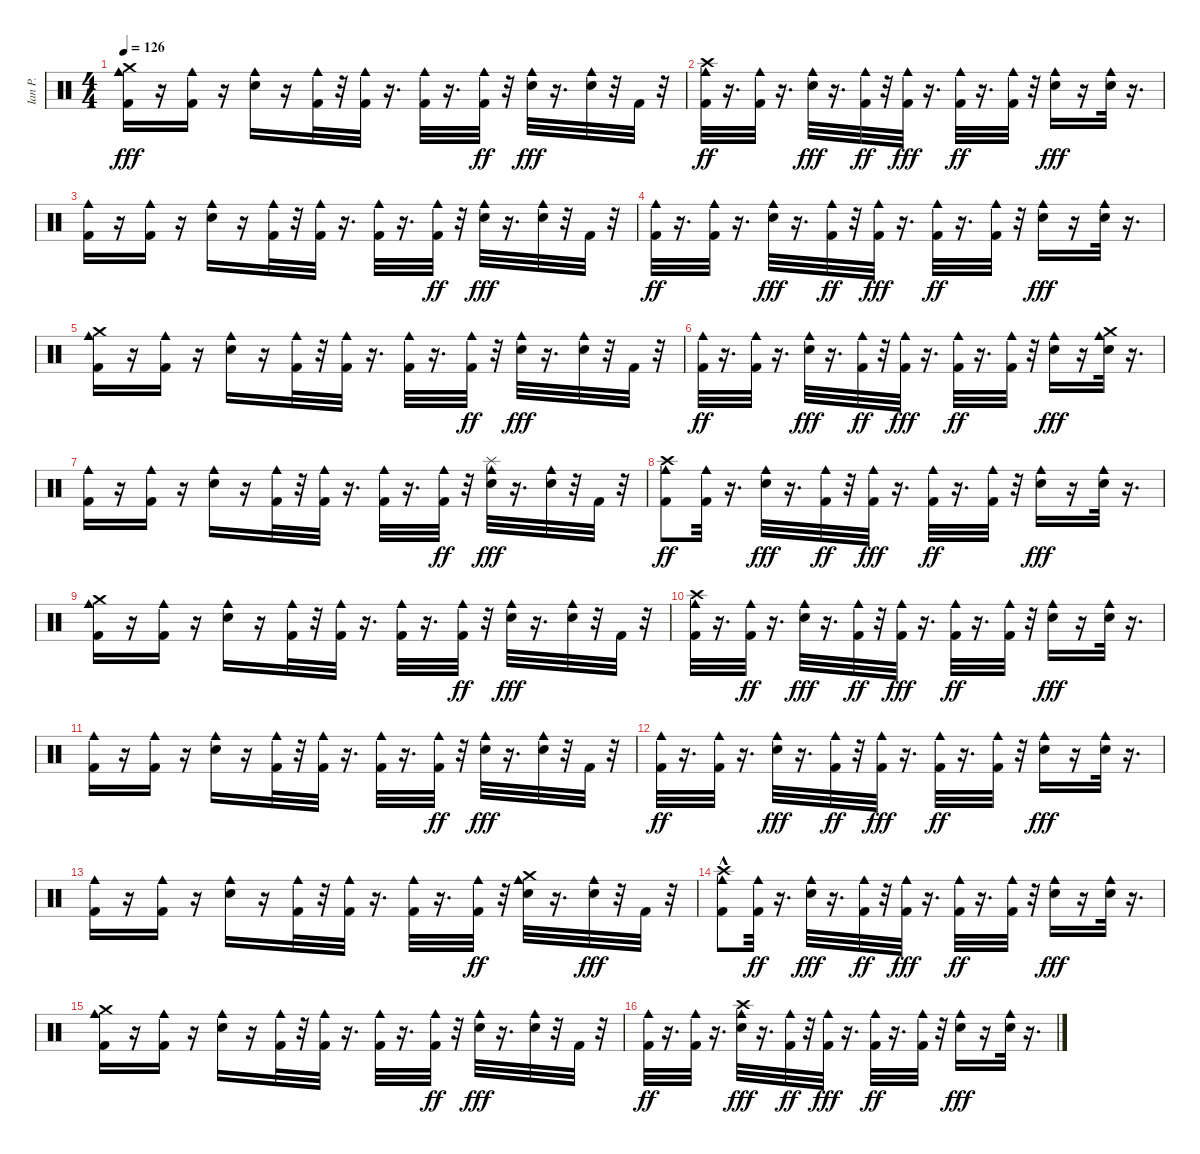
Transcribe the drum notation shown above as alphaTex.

\track ("Ian P." "Ian P.") {instrument percussion}
\staff {score}
\articulation defaults
\ts (4 4)
\tempo 126
\clef neutral
\ks c
("Cowbell medium (hit)" "Crash medium (hit)" "Kick (hit) 2").16{dy fff} r.16 ("Cowbell medium (hit)" "Kick (hit) 2").16 r.16 ("Cowbell medium (hit)" "Snare (hit) 2").16 r.16 ("Cowbell medium (hit)" "Kick (hit) 2").32 r.32 ("Cowbell medium (hit)" "Kick (hit) 2").32 r.16{d} ("Kick (hit) 2" "Cowbell medium (hit)").32 r.16{d} ("Kick (hit) 2" "Cowbell medium (hit)").32{dy ff} r.32 ("Snare (hit) 2" "Cowbell medium (hit)").32{dy fff} r.16{d} ("Snare (hit) 2" "Cowbell medium (hit)").32 r.32 "Kick (hit) 2".32 r.32 |
("Kick (hit) 2" "Crash high (hit)" "Cowbell medium (hit)").32{dy ff} r.16{d} ("Kick (hit) 2" "Cowbell medium (hit)").32 r.16{d} ("Cowbell medium (hit)" "Snare (hit) 2").32{dy fff} r.16{d} ("Cowbell medium (hit)" "Kick (hit) 2").32{dy ff} r.32 ("Cowbell medium (hit)" "Kick (hit) 2").32{dy fff} r.16{d} ("Kick (hit) 2" "Cowbell medium (hit)").32{dy ff} r.16{d} ("Cowbell medium (hit)" "Kick (hit) 2").32 r.32 ("Cowbell medium (hit)" "Snare (hit) 2").16{dy fff} r.16 ("Cowbell medium (hit)" "Snare (hit) 2").32 r.16{d} |
("Cowbell medium (hit)" "Kick (hit) 2").16 r.16 ("Cowbell medium (hit)" "Kick (hit) 2").16 r.16 ("Cowbell medium (hit)" "Snare (hit) 2").16 r.16 ("Cowbell medium (hit)" "Kick (hit) 2").32 r.32 ("Cowbell medium (hit)" "Kick (hit) 2").32 r.16{d} ("Kick (hit) 2" "Cowbell medium (hit)").32 r.16{d} ("Kick (hit) 2" "Cowbell medium (hit)").32{dy ff} r.32 ("Snare (hit) 2" "Cowbell medium (hit)").32{dy fff} r.16{d} ("Snare (hit) 2" "Cowbell medium (hit)").32 r.32 "Kick (hit) 2".32 r.32 |
("Kick (hit) 2" "Cowbell medium (hit)").32{dy ff} r.16{d} ("Kick (hit) 2" "Cowbell medium (hit)").32 r.16{d} ("Cowbell medium (hit)" "Snare (hit) 2").32{dy fff} r.16{d} ("Cowbell medium (hit)" "Kick (hit) 2").32{dy ff} r.32 ("Cowbell medium (hit)" "Kick (hit) 2").32{dy fff} r.16{d} ("Kick (hit) 2" "Cowbell medium (hit)").32{dy ff} r.16{d} ("Cowbell medium (hit)" "Kick (hit) 2").32 r.32 ("Cowbell medium (hit)" "Snare (hit) 2").16{dy fff} r.16 ("Cowbell medium (hit)" "Snare (hit) 2").32 r.16{d} |
("Cowbell medium (hit)" "Crash medium (hit)" "Kick (hit) 2").16 r.16 ("Cowbell medium (hit)" "Kick (hit) 2").16 r.16 ("Cowbell medium (hit)" "Snare (hit) 2").16 r.16 ("Cowbell medium (hit)" "Kick (hit) 2").32 r.32 ("Cowbell medium (hit)" "Kick (hit) 2").32 r.16{d} ("Kick (hit) 2" "Cowbell medium (hit)").32 r.16{d} ("Kick (hit) 2" "Cowbell medium (hit)").32{dy ff} r.32 ("Snare (hit) 2" "Cowbell medium (hit)").32{dy fff} r.16{d} ("Snare (hit) 2" "Cowbell medium (hit)").32 r.32 "Kick (hit) 2".32 r.32 |
("Kick (hit) 2" "Cowbell medium (hit)").32{dy ff} r.16{d} ("Kick (hit) 2" "Cowbell medium (hit)").32 r.16{d} ("Cowbell medium (hit)" "Snare (hit) 2").32{dy fff} r.16{d} ("Cowbell medium (hit)" "Kick (hit) 2").32{dy ff} r.32 ("Cowbell medium (hit)" "Kick (hit) 2").32{dy fff} r.16{d} ("Kick (hit) 2" "Cowbell medium (hit)").32{dy ff} r.16{d} ("Cowbell medium (hit)" "Kick (hit) 2").32 r.32 ("Cowbell medium (hit)" "Snare (hit) 2").16{dy fff} r.16 ("Crash medium (hit)" "Cowbell medium (hit)" "Snare (hit) 2").32 r.16{d} |
("Cowbell medium (hit)" "Kick (hit) 2").16 r.16 ("Cowbell medium (hit)" "Kick (hit) 2").16 r.16 ("Cowbell medium (hit)" "Snare (hit) 2").16 r.16 ("Cowbell medium (hit)" "Kick (hit) 2").32 r.32 ("Cowbell medium (hit)" "Kick (hit) 2").32 r.16{d} ("Kick (hit) 2" "Cowbell medium (hit)").32 r.16{d} ("Kick (hit) 2" "Cowbell medium (hit)").32{dy ff} r.32 ("Snare (hit) 2" "Cowbell medium (hit)" "Splash (hit)").32{dy fff} r.16{d} ("Snare (hit) 2" "Cowbell medium (hit)").32 r.32 "Kick (hit) 2".32 r.32 |
("Kick (hit) 2" "Crash high (hit)" "Cowbell medium (hit)").8{dy ff} ("Kick (hit) 2" "Cowbell medium (hit)").32 r.16{d} ("Cowbell medium (hit)" "Snare (hit) 2").32{dy fff} r.16{d} ("Cowbell medium (hit)" "Kick (hit) 2").32{dy ff} r.32 ("Cowbell medium (hit)" "Kick (hit) 2").32{dy fff} r.16{d} ("Kick (hit) 2" "Cowbell medium (hit)").32{dy ff} r.16{d} ("Cowbell medium (hit)" "Kick (hit) 2").32 r.32 ("Cowbell medium (hit)" "Snare (hit) 2").16{dy fff} r.16 ("Cowbell medium (hit)" "Snare (hit) 2").32 r.16{d} |
("Cowbell medium (hit)" "Crash medium (hit)" "Kick (hit) 2").16 r.16 ("Cowbell medium (hit)" "Kick (hit) 2").16 r.16 ("Cowbell medium (hit)" "Snare (hit) 2").16 r.16 ("Cowbell medium (hit)" "Kick (hit) 2").32 r.32 ("Cowbell medium (hit)" "Kick (hit) 2").32 r.16{d} ("Kick (hit) 2" "Cowbell medium (hit)").32 r.16{d} ("Kick (hit) 2" "Cowbell medium (hit)").32{dy ff} r.32 ("Snare (hit) 2" "Cowbell medium (hit)").32{dy fff} r.16{d} ("Snare (hit) 2" "Cowbell medium (hit)").32 r.32 "Kick (hit) 2".32 r.32 |
("Kick (hit) 2" "Cowbell medium (hit)" "Crash high (hit)").32 r.16{d} ("Kick (hit) 2" "Cowbell medium (hit)").32{dy ff} r.16{d} ("Cowbell medium (hit)" "Snare (hit) 2").32{dy fff} r.16{d} ("Cowbell medium (hit)" "Kick (hit) 2").32{dy ff} r.32 ("Cowbell medium (hit)" "Kick (hit) 2").32{dy fff} r.16{d} ("Kick (hit) 2" "Cowbell medium (hit)").32{dy ff} r.16{d} ("Cowbell medium (hit)" "Kick (hit) 2").32 r.32 ("Cowbell medium (hit)" "Snare (hit) 2").16{dy fff} r.16 ("Cowbell medium (hit)" "Snare (hit) 2").32 r.16{d} |
("Cowbell medium (hit)" "Kick (hit) 2").16 r.16 ("Cowbell medium (hit)" "Kick (hit) 2").16 r.16 ("Cowbell medium (hit)" "Snare (hit) 2").16 r.16 ("Cowbell medium (hit)" "Kick (hit) 2").32 r.32 ("Cowbell medium (hit)" "Kick (hit) 2").32 r.16{d} ("Kick (hit) 2" "Cowbell medium (hit)").32 r.16{d} ("Kick (hit) 2" "Cowbell medium (hit)").32{dy ff} r.32 ("Snare (hit) 2" "Cowbell medium (hit)").32{dy fff} r.16{d} ("Snare (hit) 2" "Cowbell medium (hit)").32 r.32 "Kick (hit) 2".32 r.32 |
("Kick (hit) 2" "Cowbell medium (hit)").32{dy ff} r.16{d} ("Kick (hit) 2" "Cowbell medium (hit)").32 r.16{d} ("Cowbell medium (hit)" "Snare (hit) 2").32{dy fff} r.16{d} ("Cowbell medium (hit)" "Kick (hit) 2").32{dy ff} r.32 ("Cowbell medium (hit)" "Kick (hit) 2").32{dy fff} r.16{d} ("Kick (hit) 2" "Cowbell medium (hit)").32{dy ff} r.16{d} ("Cowbell medium (hit)" "Kick (hit) 2").32 r.32 ("Cowbell medium (hit)" "Snare (hit) 2").16{dy fff} r.16 ("Cowbell medium (hit)" "Snare (hit) 2").32 r.16{d} |
("Cowbell medium (hit)" "Kick (hit) 2").16 r.16 ("Cowbell medium (hit)" "Kick (hit) 2").16 r.16 ("Cowbell medium (hit)" "Snare (hit) 2").16 r.16 ("Cowbell medium (hit)" "Kick (hit) 2").32 r.32 ("Cowbell medium (hit)" "Kick (hit) 2").32 r.16{d} ("Kick (hit) 2" "Cowbell medium (hit)").32 r.16{d} ("Kick (hit) 2" "Cowbell medium (hit)").32{dy ff} r.32 ("Snare (hit) 2" "Cowbell medium (hit)" "Crash medium (hit)").32 r.16{d} ("Snare (hit) 2" "Cowbell medium (hit)").32{dy fff} r.32 "Kick (hit) 2".32 r.32 |
("Kick (hit) 2" "Cowbell medium (hit)" "Crash high (hit)"{hac}).8 ("Kick (hit) 2" "Cowbell medium (hit)").32{dy ff} r.16{d} ("Cowbell medium (hit)" "Snare (hit) 2").32{dy fff} r.16{d} ("Cowbell medium (hit)" "Kick (hit) 2").32{dy ff} r.32 ("Cowbell medium (hit)" "Kick (hit) 2").32{dy fff} r.16{d} ("Kick (hit) 2" "Cowbell medium (hit)").32{dy ff} r.16{d} ("Cowbell medium (hit)" "Kick (hit) 2").32 r.32 ("Cowbell medium (hit)" "Snare (hit) 2").16{dy fff} r.16 ("Cowbell medium (hit)" "Snare (hit) 2").32 r.16{d} |
("Cowbell medium (hit)" "Kick (hit) 2" "Crash medium (hit)").16 r.16 ("Cowbell medium (hit)" "Kick (hit) 2").16 r.16 ("Cowbell medium (hit)" "Snare (hit) 2").16 r.16 ("Cowbell medium (hit)" "Kick (hit) 2").32 r.32 ("Cowbell medium (hit)" "Kick (hit) 2").32 r.16{d} ("Kick (hit) 2" "Cowbell medium (hit)").32 r.16{d} ("Kick (hit) 2" "Cowbell medium (hit)").32{dy ff} r.32 ("Snare (hit) 2" "Cowbell medium (hit)").32{dy fff} r.16{d} ("Snare (hit) 2" "Cowbell medium (hit)").32 r.32 "Kick (hit) 2".32 r.32 |
("Kick (hit) 2" "Cowbell medium (hit)").32{dy ff} r.16{d} ("Kick (hit) 2" "Cowbell medium (hit)").32 r.16{d} ("Cowbell medium (hit)" "Snare (hit) 2" "Crash high (hit)").32{dy fff} r.16{d} ("Cowbell medium (hit)" "Kick (hit) 2").32{dy ff} r.32 ("Cowbell medium (hit)" "Kick (hit) 2").32{dy fff} r.16{d} ("Kick (hit) 2" "Cowbell medium (hit)").32{dy ff} r.16{d} ("Cowbell medium (hit)" "Kick (hit) 2").32 r.32 ("Cowbell medium (hit)" "Snare (hit) 2").16{dy fff} r.16 ("Cowbell medium (hit)" "Snare (hit) 2").32 r.16{d}
